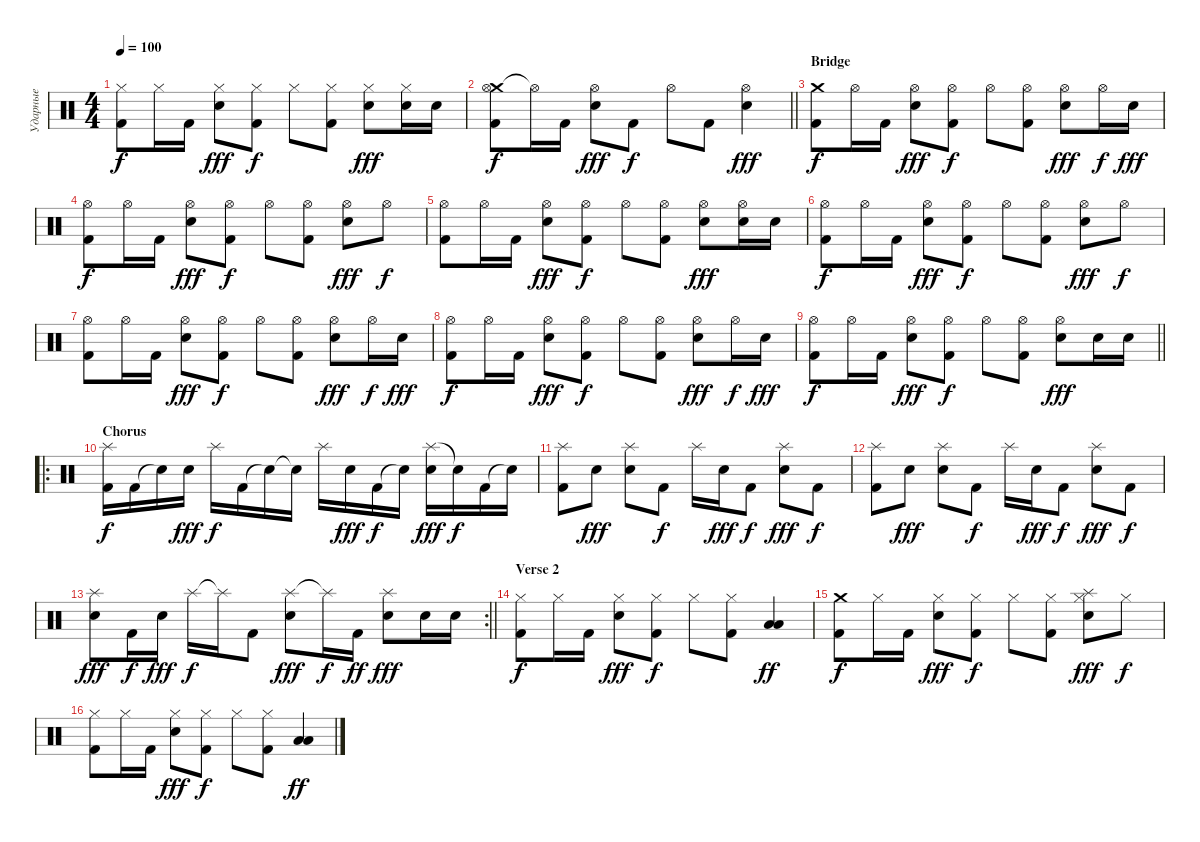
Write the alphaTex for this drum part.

\track ("Ударные" "Ударные") {instrument percussion}
\staff {score}
\articulation defaults
\ts (4 4)
\tempo 100
\clef neutral
\ks c
("Hi-Hat (closed)" "Kick (hit) 2").8{dy f} "Hi-Hat (closed)".16 "Kick (hit) 2".16 ("Hi-Hat (closed)" "Electric Snare (hit)").8{dy fff} ("Hi-Hat (closed)" "Kick (hit) 2").8{dy f} "Hi-Hat (closed)".8 ("Hi-Hat (closed)" "Kick (hit) 2").8 ("Hi-Hat (closed)" "Electric Snare (hit)").8{dy fff} ("Hi-Hat (closed)" "Electric Snare (hit)").16 "Electric Snare (hit)".16 |
\barLineRight lightlight
("Crash medium (hit)" "Hi-Hat (open)" "Kick (hit) 2").8{dy f} "Hi-Hat (open)"{t}.16 "Kick (hit) 2".16 ("Hi-Hat (open)" "Electric Snare (hit)").8{dy fff} "Kick (hit) 2".8{dy f} "Hi-Hat (open)".8 "Kick (hit) 2".8 ("Hi-Hat (open)" "Electric Snare (hit)").4{dy fff} |
\section ("" "Bridge")
("Crash medium (hit)" "Kick (hit) 2").8{dy f} "Hi-Hat (open)".16 "Kick (hit) 2".16 ("Hi-Hat (open)" "Electric Snare (hit)").8{dy fff} ("Hi-Hat (open)" "Kick (hit) 2").8{dy f} "Hi-Hat (open)".8 ("Hi-Hat (open)" "Kick (hit) 2").8 ("Hi-Hat (open)" "Electric Snare (hit)").8{dy fff} "Hi-Hat (open)".16{dy f} "Electric Snare (hit)".16{dy fff} |
("Hi-Hat (open)" "Kick (hit) 2").8{dy f} "Hi-Hat (open)".16 "Kick (hit) 2".16 ("Hi-Hat (open)" "Electric Snare (hit)").8{dy fff} ("Hi-Hat (open)" "Kick (hit) 2").8{dy f} "Hi-Hat (open)".8 ("Hi-Hat (open)" "Kick (hit) 2").8 ("Hi-Hat (open)" "Electric Snare (hit)").8{dy fff} "Hi-Hat (open)".8{dy f} |
("Hi-Hat (open)" "Kick (hit) 2").8 "Hi-Hat (open)".16 "Kick (hit) 2".16 ("Hi-Hat (open)" "Electric Snare (hit)").8{dy fff} ("Hi-Hat (open)" "Kick (hit) 2").8{dy f} "Hi-Hat (open)".8 ("Hi-Hat (open)" "Kick (hit) 2").8 ("Hi-Hat (open)" "Electric Snare (hit)").8{dy fff} ("Hi-Hat (open)" "Electric Snare (hit)").16 "Electric Snare (hit)".16 |
("Hi-Hat (open)" "Kick (hit) 2").8{dy f} "Hi-Hat (open)".16 "Kick (hit) 2".16 ("Hi-Hat (open)" "Electric Snare (hit)").8{dy fff} ("Hi-Hat (open)" "Kick (hit) 2").8{dy f} "Hi-Hat (open)".8 ("Hi-Hat (open)" "Kick (hit) 2").8 ("Hi-Hat (open)" "Electric Snare (hit)").8{dy fff} "Hi-Hat (open)".8{dy f} |
("Hi-Hat (open)" "Kick (hit) 2").8 "Hi-Hat (open)".16 "Kick (hit) 2".16 ("Hi-Hat (open)" "Electric Snare (hit)").8{dy fff} ("Hi-Hat (open)" "Kick (hit) 2").8{dy f} "Hi-Hat (open)".8 ("Hi-Hat (open)" "Kick (hit) 2").8 ("Hi-Hat (open)" "Electric Snare (hit)").8{dy fff} "Hi-Hat (open)".16{dy f} "Electric Snare (hit)".16{dy fff} |
("Hi-Hat (open)" "Kick (hit) 2").8{dy f} "Hi-Hat (open)".16 "Kick (hit) 2".16 ("Hi-Hat (open)" "Electric Snare (hit)").8{dy fff} ("Hi-Hat (open)" "Kick (hit) 2").8{dy f} "Hi-Hat (open)".8 ("Hi-Hat (open)" "Kick (hit) 2").8 ("Hi-Hat (open)" "Electric Snare (hit)").8{dy fff} "Hi-Hat (open)".16{dy f} "Electric Snare (hit)".16{dy fff} |
\barLineRight lightlight
("Hi-Hat (open)" "Kick (hit) 2").8{dy f} "Hi-Hat (open)".16 "Kick (hit) 2".16 ("Hi-Hat (open)" "Electric Snare (hit)").8{dy fff} ("Hi-Hat (open)" "Kick (hit) 2").8{dy f} "Hi-Hat (open)".8 ("Hi-Hat (open)" "Kick (hit) 2").8 ("Hi-Hat (open)" "Electric Snare (hit)").8{dy fff} "Electric Snare (hit)".16 "Electric Snare (hit)".16 |
\ro
\section ("" "Chorus")
("Splash (hit)" "Kick (hit) 2").16{dy f} "Kick (hit) 2".16 "Snare (hit)"{t}.16 "Electric Snare (hit)".16{dy fff} "Splash (hit)".16{dy f} "Kick (hit) 2".16 "Snare (hit)"{t}.16 "Snare (hit)"{t}.16 "Splash (hit)".16 "Electric Snare (hit)".16{dy fff} "Kick (hit) 2".16{dy f} "Snare (hit)"{t}.16 ("Splash (hit)" "Electric Snare (hit)").16{dy fff} "Snare (hit)"{t}.16{dy f} "Kick (hit) 2".16 "Snare (hit)"{t}.16 |
("Splash (hit)" "Kick (hit) 2").8 "Electric Snare (hit)".8{dy fff} ("Splash (hit)" "Electric Snare (hit)").8 "Kick (hit) 2".8{dy f} "Splash (hit)".16 "Electric Snare (hit)".16{dy fff} "Kick (hit) 2".8{dy f} ("Splash (hit)" "Electric Snare (hit)").8{dy fff} "Kick (hit) 2".8{dy f} |
("Splash (hit)" "Kick (hit) 2").8 "Electric Snare (hit)".8{dy fff} ("Splash (hit)" "Electric Snare (hit)").8 "Kick (hit) 2".8{dy f} "Splash (hit)".16 "Electric Snare (hit)".16{dy fff} "Kick (hit) 2".8{dy f} ("Splash (hit)" "Electric Snare (hit)").8{dy fff} "Kick (hit) 2".8{dy f} |
\rc 2
\barLineRight lightlight
("Splash (hit)" "Electric Snare (hit)").8{dy fff} "Kick (hit) 2".16{dy f} "Electric Snare (hit)".16{dy fff} "Splash (hit)".16{dy f} "Splash (hit)"{t}.16 "Kick (hit) 2".8 ("Splash (hit)" "Electric Snare (hit)").8{dy fff} "Splash (hit)"{t}.16{dy f} "Kick (hit) 2".16{dy ff} ("Splash (hit)" "Electric Snare (hit)").8{dy fff} "Electric Snare (hit)".16 "Electric Snare (hit)".16 |
\section ("" "Verse 2")
("Hi-Hat (closed)" "Kick (hit) 2").8{dy f} "Hi-Hat (closed)".16 "Kick (hit) 2".16 ("Hi-Hat (closed)" "Electric Snare (hit)").8{dy fff} ("Hi-Hat (closed)" "Kick (hit) 2").8{dy f} "Hi-Hat (closed)".8 ("Hi-Hat (closed)" "Kick (hit) 2").8 ("Low Floor Tom (hit)" "Low Floor Tom (hit)").4{dy ff} |
("Crash medium (hit)" "Kick (hit) 2").8{dy f} "Hi-Hat (closed)".16 "Kick (hit) 2".16 ("Hi-Hat (closed)" "Electric Snare (hit)").8{dy fff} ("Hi-Hat (closed)" "Kick (hit) 2").8{dy f} "Hi-Hat (closed)".8 ("Hi-Hat (closed)" "Kick (hit) 2").8 ("Splash (hit)" "Hi-Hat (closed)" "Electric Snare (hit)").8{dy fff} "Hi-Hat (closed)".8{dy f} |
("Hi-Hat (closed)" "Kick (hit) 2").8 "Hi-Hat (closed)".16 "Kick (hit) 2".16 ("Hi-Hat (closed)" "Electric Snare (hit)").8{dy fff} ("Hi-Hat (closed)" "Kick (hit) 2").8{dy f} "Hi-Hat (closed)".8 ("Hi-Hat (closed)" "Kick (hit) 2").8 ("Low Floor Tom (hit)" "Low Floor Tom (hit)").4{dy ff}
